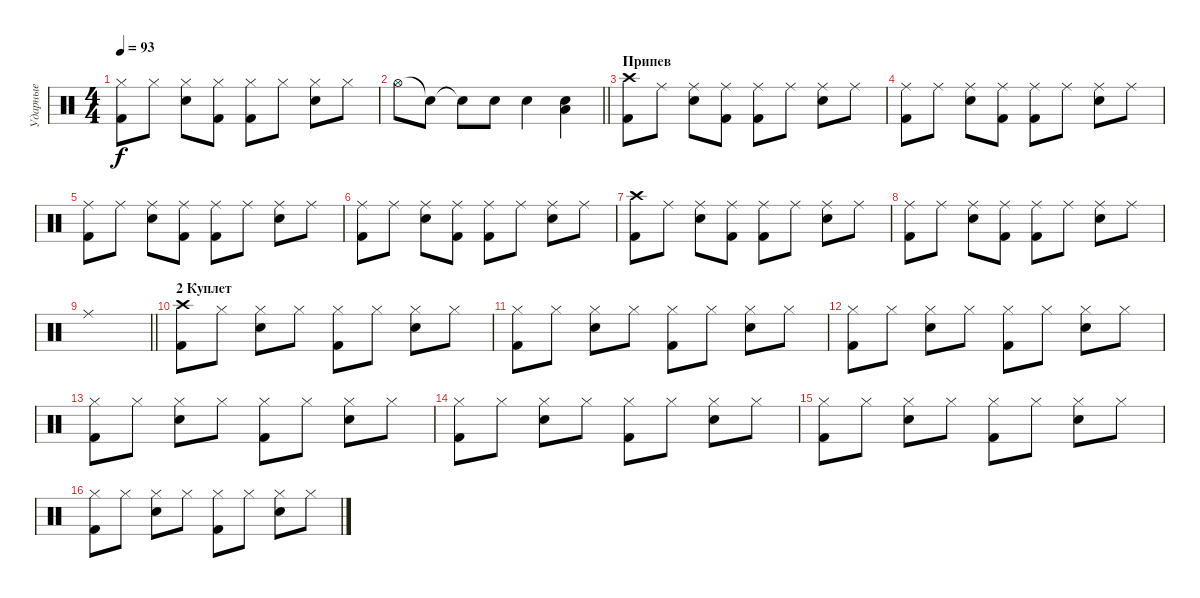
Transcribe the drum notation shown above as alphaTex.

\track ("Ударные" "Ударные") {instrument percussion}
\staff
\articulation defaults
\ts (4 4)
\tempo 93
\clef neutral
\ks c
("Hi-Hat (closed)" "Kick (hit) 2").8{dy f} "Hi-Hat (closed)".8 ("Hi-Hat (closed)" "Electric Snare (hit)").8 ("Hi-Hat (closed)" "Kick (hit) 2").8 ("Hi-Hat (closed)" "Kick (hit) 2").8 "Hi-Hat (closed)".8 ("Hi-Hat (closed)" "Electric Snare (hit)").8 "Hi-Hat (closed)".8 |
\barLineRight lightlight "Hi-Hat (open)".8 "Snare (hit)"{t}.8 "Snare (hit)"{t}.8 "Electric Snare (hit)".8 "Electric Snare (hit)".4
("Electric Snare (hit)" "Low Tom (hit)").4 |
\section ("" "Припев")
("Crash high (hit)" "Kick (hit) 2").8 "Ride (middle)".8 ("Ride (middle)" "Electric Snare (hit)").8 ("Ride (middle)" "Kick (hit) 2").8 ("Ride (middle)" "Kick (hit) 2").8 "Ride (middle)".8 ("Ride (middle)" "Electric Snare (hit)").8 "Ride (middle)".8 |
("Ride (middle)" "Kick (hit) 2").8 "Ride (middle)".8 ("Ride (middle)" "Electric Snare (hit)").8 ("Ride (middle)" "Kick (hit) 2").8 ("Ride (middle)" "Kick (hit) 2").8 "Ride (middle)".8 ("Ride (middle)" "Electric Snare (hit)").8 "Ride (middle)".8 |
("Ride (middle)" "Kick (hit) 2").8 "Ride (middle)".8 ("Ride (middle)" "Electric Snare (hit)").8 ("Ride (middle)" "Kick (hit) 2").8 ("Ride (middle)" "Kick (hit) 2").8 "Ride (middle)".8 ("Ride (middle)" "Electric Snare (hit)").8 "Ride (middle)".8 |
("Ride (middle)" "Kick (hit) 2").8 "Ride (middle)".8 ("Ride (middle)" "Electric Snare (hit)").8 ("Ride (middle)" "Kick (hit) 2").8 ("Ride (middle)" "Kick (hit) 2").8 "Ride (middle)".8 ("Ride (middle)" "Electric Snare (hit)").8 "Ride (middle)".8 |
("Crash high (hit)" "Kick (hit) 2").8 "Ride (middle)".8 ("Ride (middle)" "Electric Snare (hit)").8 ("Ride (middle)" "Kick (hit) 2").8 ("Ride (middle)" "Kick (hit) 2").8 "Ride (middle)".8 ("Ride (middle)" "Electric Snare (hit)").8 "Ride (middle)".8 |
("Ride (middle)" "Kick (hit) 2").8 "Ride (middle)".8 ("Ride (middle)" "Electric Snare (hit)").8 ("Ride (middle)" "Kick (hit) 2").8 ("Ride (middle)" "Kick (hit) 2").8 "Ride (middle)".8 ("Ride (middle)" "Electric Snare (hit)").8 "Ride (middle)".8 |
\barLineRight lightlight "Ride (middle)".1
|
\section ("" "2 Куплет")
("Crash high (hit)" "Kick (hit) 2").8 "Hi-Hat (closed)".8 ("Hi-Hat (closed)" "Electric Snare (hit)").8 "Hi-Hat (closed)".8 ("Hi-Hat (closed)" "Kick (hit) 2").8 "Hi-Hat (closed)".8 ("Hi-Hat (closed)" "Electric Snare (hit)").8 "Hi-Hat (closed)".8 |
("Hi-Hat (closed)" "Kick (hit) 2").8 "Hi-Hat (closed)".8 ("Hi-Hat (closed)" "Electric Snare (hit)").8 "Hi-Hat (closed)".8 ("Hi-Hat (closed)" "Kick (hit) 2").8 "Hi-Hat (closed)".8 ("Hi-Hat (closed)" "Electric Snare (hit)").8 "Hi-Hat (closed)".8 |
("Hi-Hat (closed)" "Kick (hit) 2").8 "Hi-Hat (closed)".8 ("Hi-Hat (closed)" "Electric Snare (hit)").8 "Hi-Hat (closed)".8 ("Hi-Hat (closed)" "Kick (hit) 2").8 "Hi-Hat (closed)".8 ("Hi-Hat (closed)" "Electric Snare (hit)").8 "Hi-Hat (closed)".8 |
("Hi-Hat (closed)" "Kick (hit) 2").8 "Hi-Hat (closed)".8 ("Hi-Hat (closed)" "Electric Snare (hit)").8 "Hi-Hat (closed)".8 ("Hi-Hat (closed)" "Kick (hit) 2").8 "Hi-Hat (closed)".8 ("Hi-Hat (closed)" "Electric Snare (hit)").8 "Hi-Hat (closed)".8 |
("Hi-Hat (closed)" "Kick (hit) 2").8 "Hi-Hat (closed)".8 ("Hi-Hat (closed)" "Electric Snare (hit)").8 "Hi-Hat (closed)".8 ("Hi-Hat (closed)" "Kick (hit) 2").8 "Hi-Hat (closed)".8 ("Hi-Hat (closed)" "Electric Snare (hit)").8 "Hi-Hat (closed)".8 |
("Hi-Hat (closed)" "Kick (hit) 2").8 "Hi-Hat (closed)".8 ("Hi-Hat (closed)" "Electric Snare (hit)").8 "Hi-Hat (closed)".8 ("Hi-Hat (closed)" "Kick (hit) 2").8 "Hi-Hat (closed)".8 ("Hi-Hat (closed)" "Electric Snare (hit)").8 "Hi-Hat (closed)".8 |
("Hi-Hat (closed)" "Kick (hit) 2").8 "Hi-Hat (closed)".8 ("Hi-Hat (closed)" "Electric Snare (hit)").8 "Hi-Hat (closed)".8 ("Hi-Hat (closed)" "Kick (hit) 2").8 "Hi-Hat (closed)".8 ("Hi-Hat (closed)" "Electric Snare (hit)").8 "Hi-Hat (closed)".8
